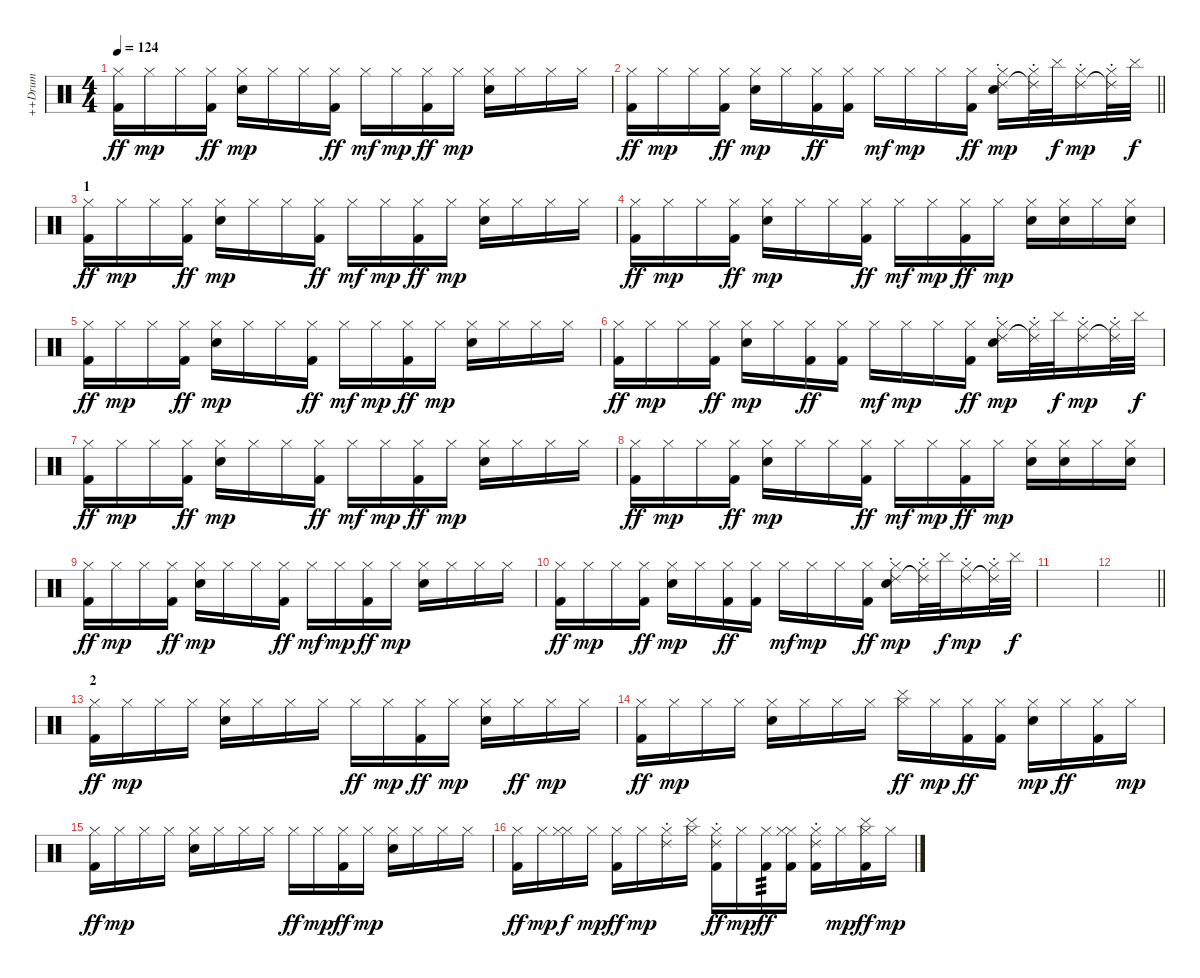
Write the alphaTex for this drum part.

\track ("++Drum" "++Drum") {instrument percussion}
\staff {score}
\articulation defaults
\ts (4 4)
\tempo 124
\clef neutral
\ks c
("Hi-Hat (closed)" "Kick (hit) 2").16{dy ff} "Hi-Hat (closed)".16{dy mp} "Hi-Hat (closed)".16 ("Hi-Hat (closed)" "Kick (hit) 2").16{dy ff} ("Hi-Hat (closed)" "Electric Snare (hit)").16{dy mp} "Hi-Hat (closed)".16 "Hi-Hat (closed)".16 ("Hi-Hat (closed)" "Kick (hit) 2").16{dy ff} "Hi-Hat (closed)".16{dy mf} "Hi-Hat (closed)".16{dy mp} ("Hi-Hat (closed)" "Kick (hit) 2").16{dy ff} "Hi-Hat (closed)".16{dy mp} ("Hi-Hat (closed)" "Electric Snare (hit)").16 "Hi-Hat (closed)".16 "Hi-Hat (closed)".16 "Hi-Hat (closed)".16 |
\barLineRight lightlight
("Hi-Hat (closed)" "Kick (hit) 2").16{dy ff} "Hi-Hat (closed)".16{dy mp} "Hi-Hat (closed)".16 ("Hi-Hat (closed)" "Kick (hit) 2").16{dy ff} ("Hi-Hat (closed)" "Electric Snare (hit)").16{dy mp} "Hi-Hat (closed)".16 ("Hi-Hat (closed)" "Kick (hit) 2").16{dy ff} ("Hi-Hat (closed)" "Kick (hit) 2").16 "Hi-Hat (closed)".16{dy mf} "Hi-Hat (closed)".16{dy mp} "Hi-Hat (closed)".16 ("Hi-Hat (closed)" "Kick (hit) 2").16{dy ff} ("Hi-Hat (closed)" "Ride (choke) 2" "Electric Snare (hit)").16{dy mp} ("Hi-Hat (closed)" "Ride (choke) 2"{t}).32 "Cymbal (hit)".32{dy f} ("Hi-Hat (closed)" "Ride (choke) 2").16{dy mp} ("Hi-Hat (closed)" "Ride (choke) 2"{t}).32 "Cymbal (hit)".32{dy f} |
\section ("" "1")
("Hi-Hat (closed)" "Kick (hit) 2").16{dy ff} "Hi-Hat (closed)".16{dy mp} "Hi-Hat (closed)".16 ("Hi-Hat (closed)" "Kick (hit) 2").16{dy ff} ("Hi-Hat (closed)" "Electric Snare (hit)").16{dy mp} "Hi-Hat (closed)".16 "Hi-Hat (closed)".16 ("Hi-Hat (closed)" "Kick (hit) 2").16{dy ff} "Hi-Hat (closed)".16{dy mf} "Hi-Hat (closed)".16{dy mp} ("Hi-Hat (closed)" "Kick (hit) 2").16{dy ff} "Hi-Hat (closed)".16{dy mp} ("Hi-Hat (closed)" "Electric Snare (hit)").16 "Hi-Hat (closed)".16 "Hi-Hat (closed)".16 "Hi-Hat (closed)".16 |
("Hi-Hat (closed)" "Kick (hit) 2").16{dy ff} "Hi-Hat (closed)".16{dy mp} "Hi-Hat (closed)".16 ("Hi-Hat (closed)" "Kick (hit) 2").16{dy ff} ("Hi-Hat (closed)" "Electric Snare (hit)").16{dy mp} "Hi-Hat (closed)".16 "Hi-Hat (closed)".16 ("Hi-Hat (closed)" "Kick (hit) 2").16{dy ff} "Hi-Hat (closed)".16{dy mf} "Hi-Hat (closed)".16{dy mp} ("Hi-Hat (closed)" "Kick (hit) 2").16{dy ff} "Hi-Hat (closed)".16{dy mp} ("Hi-Hat (closed)" "Electric Snare (hit)").16 ("Hi-Hat (closed)" "Electric Snare (hit)").16 "Hi-Hat (closed)".16 ("Hi-Hat (closed)" "Electric Snare (hit)").16 |
("Hi-Hat (closed)" "Kick (hit) 2").16{dy ff} "Hi-Hat (closed)".16{dy mp} "Hi-Hat (closed)".16 ("Hi-Hat (closed)" "Kick (hit) 2").16{dy ff} ("Hi-Hat (closed)" "Electric Snare (hit)").16{dy mp} "Hi-Hat (closed)".16 "Hi-Hat (closed)".16 ("Hi-Hat (closed)" "Kick (hit) 2").16{dy ff} "Hi-Hat (closed)".16{dy mf} "Hi-Hat (closed)".16{dy mp} ("Hi-Hat (closed)" "Kick (hit) 2").16{dy ff} "Hi-Hat (closed)".16{dy mp} ("Hi-Hat (closed)" "Electric Snare (hit)").16 "Hi-Hat (closed)".16 "Hi-Hat (closed)".16 "Hi-Hat (closed)".16 |
("Hi-Hat (closed)" "Kick (hit) 2").16{dy ff} "Hi-Hat (closed)".16{dy mp} "Hi-Hat (closed)".16 ("Hi-Hat (closed)" "Kick (hit) 2").16{dy ff} ("Hi-Hat (closed)" "Electric Snare (hit)").16{dy mp} "Hi-Hat (closed)".16 ("Hi-Hat (closed)" "Kick (hit) 2").16{dy ff} ("Hi-Hat (closed)" "Kick (hit) 2").16 "Hi-Hat (closed)".16{dy mf} "Hi-Hat (closed)".16{dy mp} "Hi-Hat (closed)".16 ("Hi-Hat (closed)" "Kick (hit) 2").16{dy ff} ("Hi-Hat (closed)" "Ride (choke) 2" "Electric Snare (hit)").16{dy mp} ("Hi-Hat (closed)" "Ride (choke) 2"{t}).32 "Cymbal (hit)".32{dy f} ("Hi-Hat (closed)" "Ride (choke) 2").16{dy mp} ("Hi-Hat (closed)" "Ride (choke) 2"{t}).32 "Cymbal (hit)".32{dy f} |
("Hi-Hat (closed)" "Kick (hit) 2").16{dy ff} "Hi-Hat (closed)".16{dy mp} "Hi-Hat (closed)".16 ("Hi-Hat (closed)" "Kick (hit) 2").16{dy ff} ("Hi-Hat (closed)" "Electric Snare (hit)").16{dy mp} "Hi-Hat (closed)".16 "Hi-Hat (closed)".16 ("Hi-Hat (closed)" "Kick (hit) 2").16{dy ff} "Hi-Hat (closed)".16{dy mf} "Hi-Hat (closed)".16{dy mp} ("Hi-Hat (closed)" "Kick (hit) 2").16{dy ff} "Hi-Hat (closed)".16{dy mp} ("Hi-Hat (closed)" "Electric Snare (hit)").16 "Hi-Hat (closed)".16 "Hi-Hat (closed)".16 "Hi-Hat (closed)".16 |
("Hi-Hat (closed)" "Kick (hit) 2").16{dy ff} "Hi-Hat (closed)".16{dy mp} "Hi-Hat (closed)".16 ("Hi-Hat (closed)" "Kick (hit) 2").16{dy ff} ("Hi-Hat (closed)" "Electric Snare (hit)").16{dy mp} "Hi-Hat (closed)".16 "Hi-Hat (closed)".16 ("Hi-Hat (closed)" "Kick (hit) 2").16{dy ff} "Hi-Hat (closed)".16{dy mf} "Hi-Hat (closed)".16{dy mp} ("Hi-Hat (closed)" "Kick (hit) 2").16{dy ff} "Hi-Hat (closed)".16{dy mp} ("Hi-Hat (closed)" "Electric Snare (hit)").16 ("Hi-Hat (closed)" "Electric Snare (hit)").16 "Hi-Hat (closed)".16 ("Hi-Hat (closed)" "Electric Snare (hit)").16 |
("Hi-Hat (closed)" "Kick (hit) 2").16{dy ff} "Hi-Hat (closed)".16{dy mp} "Hi-Hat (closed)".16 ("Hi-Hat (closed)" "Kick (hit) 2").16{dy ff} ("Hi-Hat (closed)" "Electric Snare (hit)").16{dy mp} "Hi-Hat (closed)".16 "Hi-Hat (closed)".16 ("Hi-Hat (closed)" "Kick (hit) 2").16{dy ff} "Hi-Hat (closed)".16{dy mf} "Hi-Hat (closed)".16{dy mp} ("Hi-Hat (closed)" "Kick (hit) 2").16{dy ff} "Hi-Hat (closed)".16{dy mp} ("Hi-Hat (closed)" "Electric Snare (hit)").16 "Hi-Hat (closed)".16 "Hi-Hat (closed)".16 "Hi-Hat (closed)".16 |
("Hi-Hat (closed)" "Kick (hit) 2").16{dy ff} "Hi-Hat (closed)".16{dy mp} "Hi-Hat (closed)".16 ("Hi-Hat (closed)" "Kick (hit) 2").16{dy ff} ("Hi-Hat (closed)" "Electric Snare (hit)").16{dy mp} "Hi-Hat (closed)".16 ("Hi-Hat (closed)" "Kick (hit) 2").16{dy ff} ("Hi-Hat (closed)" "Kick (hit) 2").16 "Hi-Hat (closed)".16{dy mf} "Hi-Hat (closed)".16{dy mp} "Hi-Hat (closed)".16 ("Hi-Hat (closed)" "Kick (hit) 2").16{dy ff} ("Hi-Hat (closed)" "Ride (choke) 2" "Electric Snare (hit)").16{dy mp} ("Hi-Hat (closed)" "Ride (choke) 2"{t}).32 "Cymbal (hit)".32{dy f} ("Hi-Hat (closed)" "Ride (choke) 2").16{dy mp} ("Hi-Hat (closed)" "Ride (choke) 2"{t}).32 "Cymbal (hit)".32{dy f} |
|
\barLineRight lightlight
|
\section ("" "2")
("Hi-Hat (closed)" "Kick (hit) 2").16{dy ff} "Hi-Hat (closed)".16{dy mp} "Hi-Hat (closed)".16 "Hi-Hat (closed)".16 ("Hi-Hat (closed)" "Electric Snare (hit)").16 "Hi-Hat (closed)".16 "Hi-Hat (closed)".16 "Hi-Hat (closed)".16 "Hi-Hat (closed)".16{dy ff} "Hi-Hat (closed)".16{dy mp} ("Hi-Hat (closed)" "Kick (hit) 2").16{dy ff} "Hi-Hat (closed)".16{dy mp} ("Hi-Hat (closed)" "Electric Snare (hit)").16 "Hi-Hat (closed)".16{dy ff} "Hi-Hat (closed)".16{dy mp} "Hi-Hat (closed)".16 |
("Hi-Hat (closed)" "Kick (hit) 2").16{dy ff} "Hi-Hat (closed)".16{dy mp} "Hi-Hat (closed)".16 "Hi-Hat (closed)".16 ("Hi-Hat (closed)" "Electric Snare (hit)").16 "Hi-Hat (closed)".16 "Hi-Hat (closed)".16 "Hi-Hat (closed)".16 ("Hi-Hat (closed)" "Cymbal (hit)").16{dy ff} "Hi-Hat (closed)".16{dy mp} ("Hi-Hat (closed)" "Kick (hit) 2").16{dy ff} ("Hi-Hat (closed)" "Kick (hit) 2").16 ("Hi-Hat (closed)" "Electric Snare (hit)").16{dy mp} "Hi-Hat (closed)".16{dy ff} ("Hi-Hat (closed)" "Kick (hit) 2").16 "Hi-Hat (closed)".16{dy mp} |
("Hi-Hat (closed)" "Kick (hit) 2").16{dy ff} "Hi-Hat (closed)".16{dy mp} "Hi-Hat (closed)".16 "Hi-Hat (closed)".16 ("Hi-Hat (closed)" "Electric Snare (hit)").16 "Hi-Hat (closed)".16 "Hi-Hat (closed)".16 "Hi-Hat (closed)".16 "Hi-Hat (closed)".16{dy ff} "Hi-Hat (closed)".16{dy mp} ("Hi-Hat (closed)" "Kick (hit) 2").16{dy ff} "Hi-Hat (closed)".16{dy mp} ("Hi-Hat (closed)" "Electric Snare (hit)").16 "Hi-Hat (closed)".16 "Hi-Hat (closed)".16 "Hi-Hat (closed)".16 |
("Hi-Hat (closed)" "Kick (hit) 2").16{dy ff} "Hi-Hat (closed)".16{dy mp} ("Hi-Hat (closed)" "Hi-Hat (closed)").16{dy f} "Hi-Hat (closed)".16{dy mp} ("Hi-Hat (closed)" "Kick (hit) 2").16{dy ff} "Hi-Hat (closed)".16{dy mp} ("Hi-Hat (closed)" "Ride (choke) 2").16 ("Hi-Hat (closed)" "Cymbal (hit)").16 ("Hi-Hat (closed)" "Ride (choke) 2" "Kick (hit) 2").16{dy ff} "Hi-Hat (closed)".16{dy mp} ("Hi-Hat (closed)" "Kick (hit) 2").16{tp 3 dy ff} ("Hi-Hat (closed)" "Hi-Hat (closed)" "Kick (hit) 2").16 ("Hi-Hat (closed)" "Ride (choke) 2" "Kick (hit) 2").16 "Hi-Hat (closed)".16{dy mp} ("Hi-Hat (closed)" "Cymbal (hit)" "Kick (hit) 2").16{dy ff} "Hi-Hat (closed)".16{dy mp}
